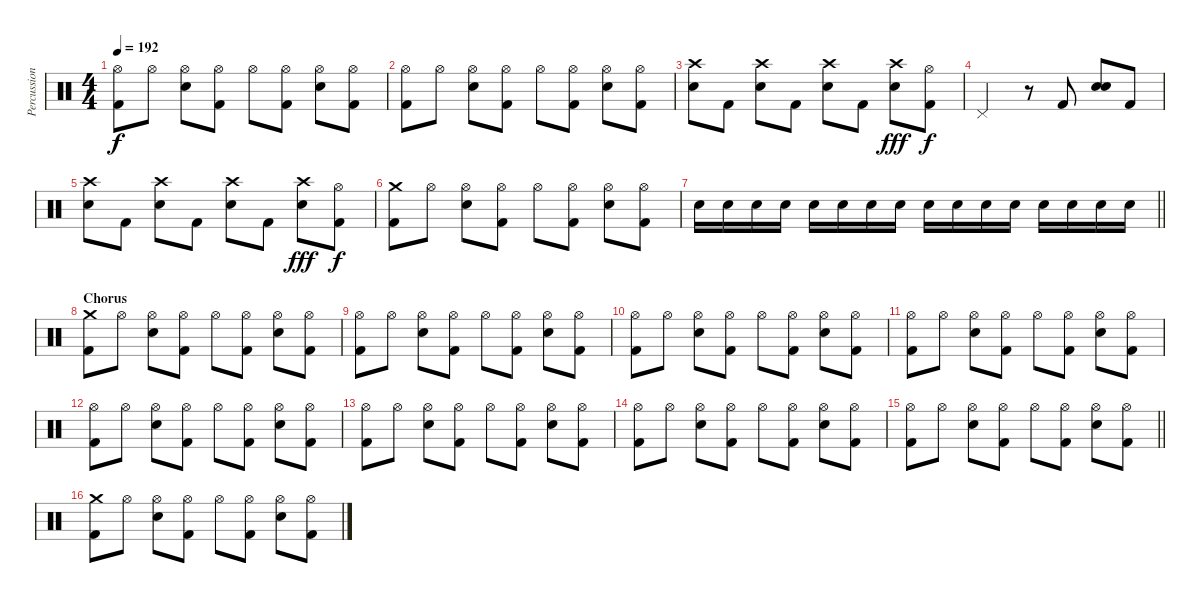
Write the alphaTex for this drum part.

\track ("Percussion" "Percussion") {instrument percussion}
\staff {score}
\articulation defaults
\ts (4 4)
\tempo 192
\clef neutral
\ks c
("Hi-Hat (open)" "Kick (hit) 2").8{dy f} "Hi-Hat (open)".8 ("Hi-Hat (open)" "Electric Snare (hit)").8 ("Hi-Hat (open)" "Kick (hit) 2").8 "Hi-Hat (open)".8 ("Hi-Hat (open)" "Kick (hit) 2").8 ("Hi-Hat (open)" "Electric Snare (hit)").8 ("Hi-Hat (open)" "Kick (hit) 2").8 |
("Hi-Hat (open)" "Kick (hit) 2").8 "Hi-Hat (open)".8 ("Hi-Hat (open)" "Electric Snare (hit)").8 ("Hi-Hat (open)" "Kick (hit) 2").8 "Hi-Hat (open)".8 ("Hi-Hat (open)" "Kick (hit) 2").8 ("Hi-Hat (open)" "Electric Snare (hit)").8 ("Hi-Hat (open)" "Kick (hit) 2").8 |
("Crash high (hit)" "Electric Snare (hit)").8 "Kick (hit) 2".8 ("Crash high (hit)" "Electric Snare (hit)").8 "Kick (hit) 2".8 ("Crash high (hit)" "Electric Snare (hit)").8 "Kick (hit) 2".8 ("Crash high (hit)" "Electric Snare (hit)").8{dy fff} ("Hi-Hat (open)" "Kick (hit) 2").8{dy f} |
"Pedal Hi-Hat (hit)".2 r.8 "Kick (hit) 2".8 ("Electric Snare (hit)" "Electric Snare (hit)").8 "Kick (hit) 2".8 |
("Crash high (hit)" "Electric Snare (hit)").8 "Kick (hit) 2".8 ("Crash high (hit)" "Electric Snare (hit)").8 "Kick (hit) 2".8 ("Crash high (hit)" "Electric Snare (hit)").8 "Kick (hit) 2".8 ("Crash high (hit)" "Electric Snare (hit)").8{dy fff} ("Hi-Hat (open)" "Kick (hit) 2").8{dy f} |
("Crash medium (hit)" "Kick (hit) 2").8 "Hi-Hat (open)".8 ("Hi-Hat (open)" "Electric Snare (hit)").8 ("Hi-Hat (open)" "Kick (hit) 2").8 "Hi-Hat (open)".8 ("Hi-Hat (open)" "Kick (hit) 2").8 ("Hi-Hat (open)" "Electric Snare (hit)").8 ("Hi-Hat (open)" "Kick (hit) 2").8 |
\barLineRight lightlight "Electric Snare (hit)".16 "Electric Snare (hit)".16 "Electric Snare (hit)".16 "Electric Snare (hit)".16 "Electric Snare (hit)".16 "Electric Snare (hit)".16 "Electric Snare (hit)".16 "Electric Snare (hit)".16 "Electric Snare (hit)".16 "Electric Snare (hit)".16 "Electric Snare (hit)".16 "Electric Snare (hit)".16 "Electric Snare (hit)".16 "Electric Snare (hit)".16 "Electric Snare (hit)".16 "Electric Snare (hit)".16
|
\section ("" "Chorus")
("Crash medium (hit)" "Kick (hit) 2").8 "Hi-Hat (open)".8 ("Hi-Hat (open)" "Electric Snare (hit)").8 ("Hi-Hat (open)" "Kick (hit) 2").8 "Hi-Hat (open)".8 ("Hi-Hat (open)" "Kick (hit) 2").8 ("Hi-Hat (open)" "Electric Snare (hit)").8 ("Hi-Hat (open)" "Kick (hit) 2").8 |
("Hi-Hat (open)" "Kick (hit) 2").8 "Hi-Hat (open)".8 ("Hi-Hat (open)" "Electric Snare (hit)").8 ("Hi-Hat (open)" "Kick (hit) 2").8 "Hi-Hat (open)".8 ("Hi-Hat (open)" "Kick (hit) 2").8 ("Hi-Hat (open)" "Electric Snare (hit)").8 ("Hi-Hat (open)" "Kick (hit) 2").8 |
("Hi-Hat (open)" "Kick (hit) 2").8 "Hi-Hat (open)".8 ("Hi-Hat (open)" "Electric Snare (hit)").8 ("Hi-Hat (open)" "Kick (hit) 2").8 "Hi-Hat (open)".8 ("Hi-Hat (open)" "Kick (hit) 2").8 ("Hi-Hat (open)" "Electric Snare (hit)").8 ("Hi-Hat (open)" "Kick (hit) 2").8 |
("Hi-Hat (open)" "Kick (hit) 2").8 "Hi-Hat (open)".8 ("Hi-Hat (open)" "Electric Snare (hit)").8 ("Hi-Hat (open)" "Kick (hit) 2").8 "Hi-Hat (open)".8 ("Hi-Hat (open)" "Kick (hit) 2").8 ("Hi-Hat (open)" "Electric Snare (hit)").8 ("Hi-Hat (open)" "Kick (hit) 2").8 |
("Hi-Hat (open)" "Kick (hit) 2").8 "Hi-Hat (open)".8 ("Hi-Hat (open)" "Electric Snare (hit)").8 ("Hi-Hat (open)" "Kick (hit) 2").8 "Hi-Hat (open)".8 ("Hi-Hat (open)" "Kick (hit) 2").8 ("Hi-Hat (open)" "Electric Snare (hit)").8 ("Hi-Hat (open)" "Kick (hit) 2").8 |
("Hi-Hat (open)" "Kick (hit) 2").8 "Hi-Hat (open)".8 ("Hi-Hat (open)" "Electric Snare (hit)").8 ("Hi-Hat (open)" "Kick (hit) 2").8 "Hi-Hat (open)".8 ("Hi-Hat (open)" "Kick (hit) 2").8 ("Hi-Hat (open)" "Electric Snare (hit)").8 ("Hi-Hat (open)" "Kick (hit) 2").8 |
("Hi-Hat (open)" "Kick (hit) 2").8 "Hi-Hat (open)".8 ("Hi-Hat (open)" "Electric Snare (hit)").8 ("Hi-Hat (open)" "Kick (hit) 2").8 "Hi-Hat (open)".8 ("Hi-Hat (open)" "Kick (hit) 2").8 ("Hi-Hat (open)" "Electric Snare (hit)").8 ("Hi-Hat (open)" "Kick (hit) 2").8 |
\barLineRight lightlight
("Hi-Hat (open)" "Kick (hit) 2").8 "Hi-Hat (open)".8 ("Hi-Hat (open)" "Electric Snare (hit)").8 ("Hi-Hat (open)" "Kick (hit) 2").8 "Hi-Hat (open)".8 ("Hi-Hat (open)" "Kick (hit) 2").8 ("Hi-Hat (open)" "Electric Snare (hit)").8 ("Hi-Hat (open)" "Kick (hit) 2").8 |
("Crash medium (hit)" "Kick (hit) 2").8 "Hi-Hat (open)".8 ("Hi-Hat (open)" "Electric Snare (hit)").8 ("Hi-Hat (open)" "Kick (hit) 2").8 "Hi-Hat (open)".8 ("Hi-Hat (open)" "Kick (hit) 2").8 ("Hi-Hat (open)" "Electric Snare (hit)").8 ("Hi-Hat (open)" "Kick (hit) 2").8
